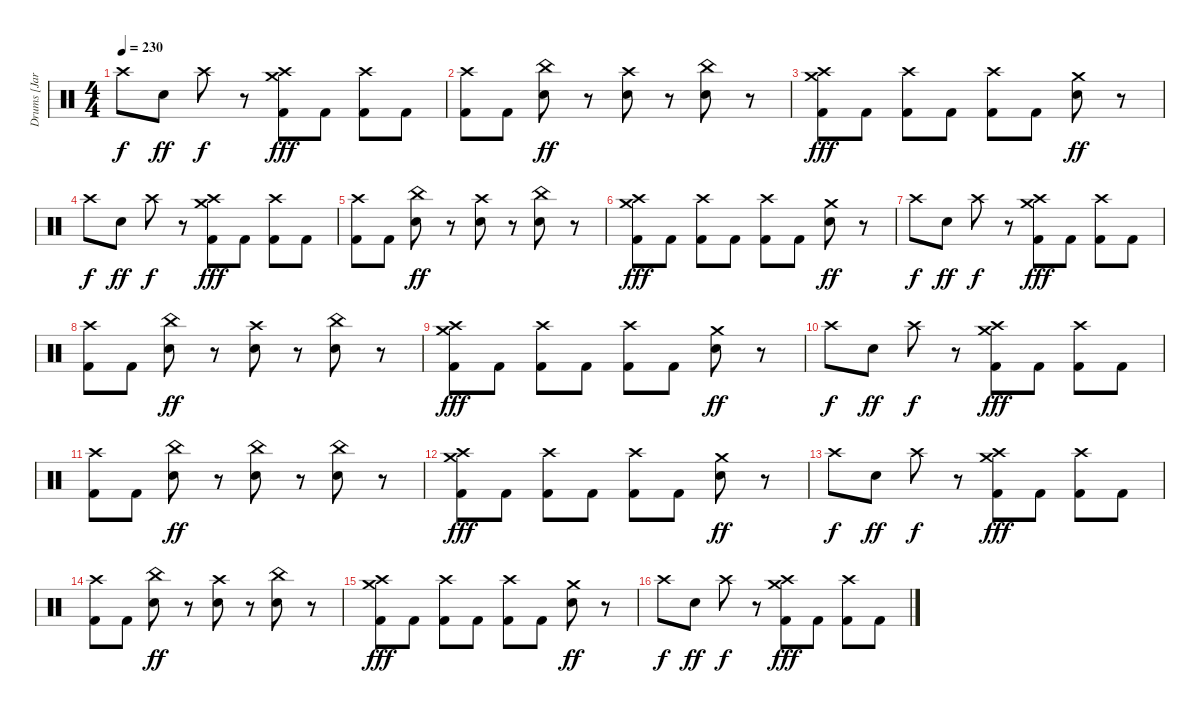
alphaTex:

\track ("Drums [Jared]" "Drums [Jar") {instrument percussion}
\staff {score}
\articulation defaults
\ts (4 4)
\tempo 230
\clef neutral
\ks c "Crash high (hit)".8{dy f} "Electric Snare (hit)".8{dy ff} "Crash high (hit)".8{dy f}
r.8 ("Crash medium (hit)" "Crash high (hit)" "Kick (hit) 2").8{dy fff} "Kick (hit) 2".8 ("Crash high (hit)" "Kick (hit) 2").8 "Kick (hit) 2".8 |
("Crash high (hit)" "Kick (hit) 2").8 "Kick (hit) 2".8 ("China (hit)" "Electric Snare (hit)").8{dy ff} r.8 ("Crash high (hit)" "Electric Snare (hit)").8 r.8 ("China (hit)" "Electric Snare (hit)").8 r.8 |
("Crash medium (hit)" "Crash high (hit)" "Kick (hit) 2").8{dy fff} "Kick (hit) 2".8 ("Crash high (hit)" "Kick (hit) 2").8 "Kick (hit) 2".8 ("Crash high (hit)" "Kick (hit) 2").8 "Kick (hit) 2".8 ("Crash medium (hit)" "Electric Snare (hit)").8{dy ff} r.8 |
"Crash high (hit)".8{dy f} "Electric Snare (hit)".8{dy ff} "Crash high (hit)".8{dy f} r.8 ("Crash medium (hit)" "Crash high (hit)" "Kick (hit) 2").8{dy fff} "Kick (hit) 2".8 ("Crash high (hit)" "Kick (hit) 2").8 "Kick (hit) 2".8 |
("Crash high (hit)" "Kick (hit) 2").8 "Kick (hit) 2".8 ("China (hit)" "Electric Snare (hit)").8{dy ff} r.8 ("Crash high (hit)" "Electric Snare (hit)").8 r.8 ("China (hit)" "Electric Snare (hit)").8 r.8 |
("Crash medium (hit)" "Crash high (hit)" "Kick (hit) 2").8{dy fff} "Kick (hit) 2".8 ("Crash high (hit)" "Kick (hit) 2").8 "Kick (hit) 2".8 ("Crash high (hit)" "Kick (hit) 2").8 "Kick (hit) 2".8 ("Crash medium (hit)" "Electric Snare (hit)").8{dy ff} r.8 |
"Crash high (hit)".8{dy f} "Electric Snare (hit)".8{dy ff} "Crash high (hit)".8{dy f} r.8 ("Crash medium (hit)" "Crash high (hit)" "Kick (hit) 2").8{dy fff} "Kick (hit) 2".8 ("Crash high (hit)" "Kick (hit) 2").8 "Kick (hit) 2".8 |
("Crash high (hit)" "Kick (hit) 2").8 "Kick (hit) 2".8 ("China (hit)" "Electric Snare (hit)").8{dy ff} r.8 ("Crash high (hit)" "Electric Snare (hit)").8 r.8 ("China (hit)" "Electric Snare (hit)").8 r.8 |
("Crash medium (hit)" "Crash high (hit)" "Kick (hit) 2").8{dy fff} "Kick (hit) 2".8 ("Crash high (hit)" "Kick (hit) 2").8 "Kick (hit) 2".8 ("Crash high (hit)" "Kick (hit) 2").8 "Kick (hit) 2".8 ("Crash medium (hit)" "Electric Snare (hit)").8{dy ff} r.8 |
"Crash high (hit)".8{dy f} "Electric Snare (hit)".8{dy ff} "Crash high (hit)".8{dy f} r.8 ("Crash medium (hit)" "Crash high (hit)" "Kick (hit) 2").8{dy fff} "Kick (hit) 2".8 ("Crash high (hit)" "Kick (hit) 2").8 "Kick (hit) 2".8 |
("Crash high (hit)" "Kick (hit) 2").8 "Kick (hit) 2".8 ("China (hit)" "Electric Snare (hit)").8{dy ff} r.8 ("China (hit)" "Electric Snare (hit)").8 r.8 ("China (hit)" "Electric Snare (hit)").8 r.8 |
("Crash medium (hit)" "Crash high (hit)" "Kick (hit) 2").8{dy fff} "Kick (hit) 2".8 ("Crash high (hit)" "Kick (hit) 2").8 "Kick (hit) 2".8 ("Crash high (hit)" "Kick (hit) 2").8 "Kick (hit) 2".8 ("Crash medium (hit)" "Electric Snare (hit)").8{dy ff} r.8 |
"Crash high (hit)".8{dy f} "Electric Snare (hit)".8{dy ff} "Crash high (hit)".8{dy f} r.8 ("Crash medium (hit)" "Crash high (hit)" "Kick (hit) 2").8{dy fff} "Kick (hit) 2".8 ("Crash high (hit)" "Kick (hit) 2").8 "Kick (hit) 2".8 |
("Crash high (hit)" "Kick (hit) 2").8 "Kick (hit) 2".8 ("China (hit)" "Electric Snare (hit)").8{dy ff} r.8 ("Crash high (hit)" "Electric Snare (hit)").8 r.8 ("China (hit)" "Electric Snare (hit)").8 r.8 |
("Crash medium (hit)" "Crash high (hit)" "Kick (hit) 2").8{dy fff} "Kick (hit) 2".8 ("Crash high (hit)" "Kick (hit) 2").8 "Kick (hit) 2".8 ("Crash high (hit)" "Kick (hit) 2").8 "Kick (hit) 2".8 ("Crash medium (hit)" "Electric Snare (hit)").8{dy ff} r.8 |
"Crash high (hit)".8{dy f} "Electric Snare (hit)".8{dy ff} "Crash high (hit)".8{dy f} r.8 ("Crash medium (hit)" "Crash high (hit)" "Kick (hit) 2").8{dy fff} "Kick (hit) 2".8 ("Crash high (hit)" "Kick (hit) 2").8 "Kick (hit) 2".8
